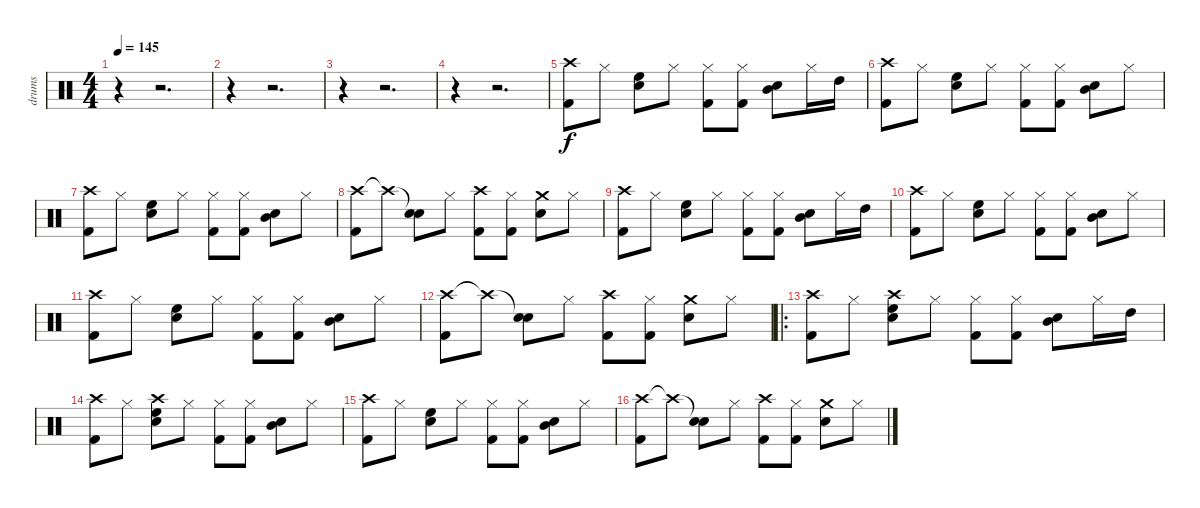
\track ("drums" "drums") {instrument percussion}
\staff {score}
\articulation defaults
\ts (4 4)
\tempo 145
\clef neutral
\ks c
r.4{dy f} r.2{d} |
r.4 r.2{d} |
r.4 r.2{d} |
r.4 r.2{d} |
("Crash high (hit)" "Kick (hit) 2").8 "Hi-Hat (closed)".8 ("High Floor Tom (hit)" "Snare (hit) 2").8 "Hi-Hat (closed)".8 ("Hi-Hat (closed)" "Kick (hit) 2").8 ("Hi-Hat (closed)" "Kick (hit) 2").8 ("Mid Tom (hit)" "Snare (hit) 2").8 "Hi-Hat (closed)".16 "High Tom (hit)".16 |
("Crash high (hit)" "Kick (hit) 2").8 "Hi-Hat (closed)".8 ("High Floor Tom (hit)" "Snare (hit) 2").8 "Hi-Hat (closed)".8 ("Hi-Hat (closed)" "Kick (hit) 2").8 ("Hi-Hat (closed)" "Kick (hit) 2").8 ("Mid Tom (hit)" "Snare (hit) 2").8 "Hi-Hat (closed)".8 |
("Crash high (hit)" "Kick (hit) 2").8 "Hi-Hat (closed)".8 ("High Floor Tom (hit)" "Snare (hit) 2").8 "Hi-Hat (closed)".8 ("Hi-Hat (closed)" "Kick (hit) 2").8 ("Hi-Hat (closed)" "Kick (hit) 2").8 ("Mid Tom (hit)" "Snare (hit) 2").8 "Hi-Hat (closed)".8 |
("Crash high (hit)" "Kick (hit) 2").8 "Crash high (hit)"{t}.8 ("Snare (hit)"{t} "Snare (hit) 2").8 "Hi-Hat (closed)".8 ("Crash high (hit)" "Kick (hit) 2").8 ("Hi-Hat (closed)" "Kick (hit) 2").8 ("Crash medium (hit)" "Snare (hit) 2").8 "Hi-Hat (closed)".8 |
("Crash high (hit)" "Kick (hit) 2").8 "Hi-Hat (closed)".8 ("High Floor Tom (hit)" "Snare (hit) 2").8 "Hi-Hat (closed)".8 ("Hi-Hat (closed)" "Kick (hit) 2").8 ("Hi-Hat (closed)" "Kick (hit) 2").8 ("Mid Tom (hit)" "Snare (hit) 2").8 "Hi-Hat (closed)".16 "High Tom (hit)".16 |
("Crash high (hit)" "Kick (hit) 2").8 "Hi-Hat (closed)".8 ("High Floor Tom (hit)" "Snare (hit) 2").8 "Hi-Hat (closed)".8 ("Hi-Hat (closed)" "Kick (hit) 2").8 ("Hi-Hat (closed)" "Kick (hit) 2").8 ("Mid Tom (hit)" "Snare (hit) 2").8 "Hi-Hat (closed)".8 |
("Crash high (hit)" "Kick (hit) 2").8 "Hi-Hat (closed)".8 ("High Floor Tom (hit)" "Snare (hit) 2").8 "Hi-Hat (closed)".8 ("Hi-Hat (closed)" "Kick (hit) 2").8 ("Hi-Hat (closed)" "Kick (hit) 2").8 ("Mid Tom (hit)" "Snare (hit) 2").8 "Hi-Hat (closed)".8 |
("Crash high (hit)" "Kick (hit) 2").8 "Crash high (hit)"{t}.8 ("Snare (hit)"{t} "Snare (hit) 2").8 "Hi-Hat (closed)".8 ("Crash high (hit)" "Kick (hit) 2").8 ("Hi-Hat (closed)" "Kick (hit) 2").8 ("Crash medium (hit)" "Snare (hit) 2").8 "Hi-Hat (closed)".8 |
\ro
("Crash high (hit)" "Kick (hit) 2").8 "Hi-Hat (closed)".8 ("High Floor Tom (hit)" "Crash high (hit)" "Snare (hit) 2").8 "Hi-Hat (closed)".8 ("Hi-Hat (closed)" "Kick (hit) 2").8 ("Hi-Hat (closed)" "Kick (hit) 2").8 ("Mid Tom (hit)" "Snare (hit) 2").8 "Hi-Hat (closed)".16 "High Tom (hit)".16 |
("Crash high (hit)" "Kick (hit) 2").8 "Hi-Hat (closed)".8 ("High Floor Tom (hit)" "Crash high (hit)" "Snare (hit) 2").8 "Hi-Hat (closed)".8 ("Hi-Hat (closed)" "Kick (hit) 2").8 ("Hi-Hat (closed)" "Kick (hit) 2").8 ("Mid Tom (hit)" "Snare (hit) 2").8 "Hi-Hat (closed)".8 |
("Crash high (hit)" "Kick (hit) 2").8 "Hi-Hat (closed)".8 ("High Floor Tom (hit)" "Snare (hit) 2").8 "Hi-Hat (closed)".8 ("Hi-Hat (closed)" "Kick (hit) 2").8 ("Hi-Hat (closed)" "Kick (hit) 2").8 ("Mid Tom (hit)" "Snare (hit) 2").8 "Hi-Hat (closed)".8 |
("Crash high (hit)" "Kick (hit) 2").8 "Crash high (hit)"{t}.8 ("Snare (hit)"{t} "Snare (hit) 2").8 "Hi-Hat (closed)".8 ("Crash high (hit)" "Kick (hit) 2").8 ("Hi-Hat (closed)" "Kick (hit) 2").8 ("Crash medium (hit)" "Snare (hit) 2").8 "Hi-Hat (closed)".8
